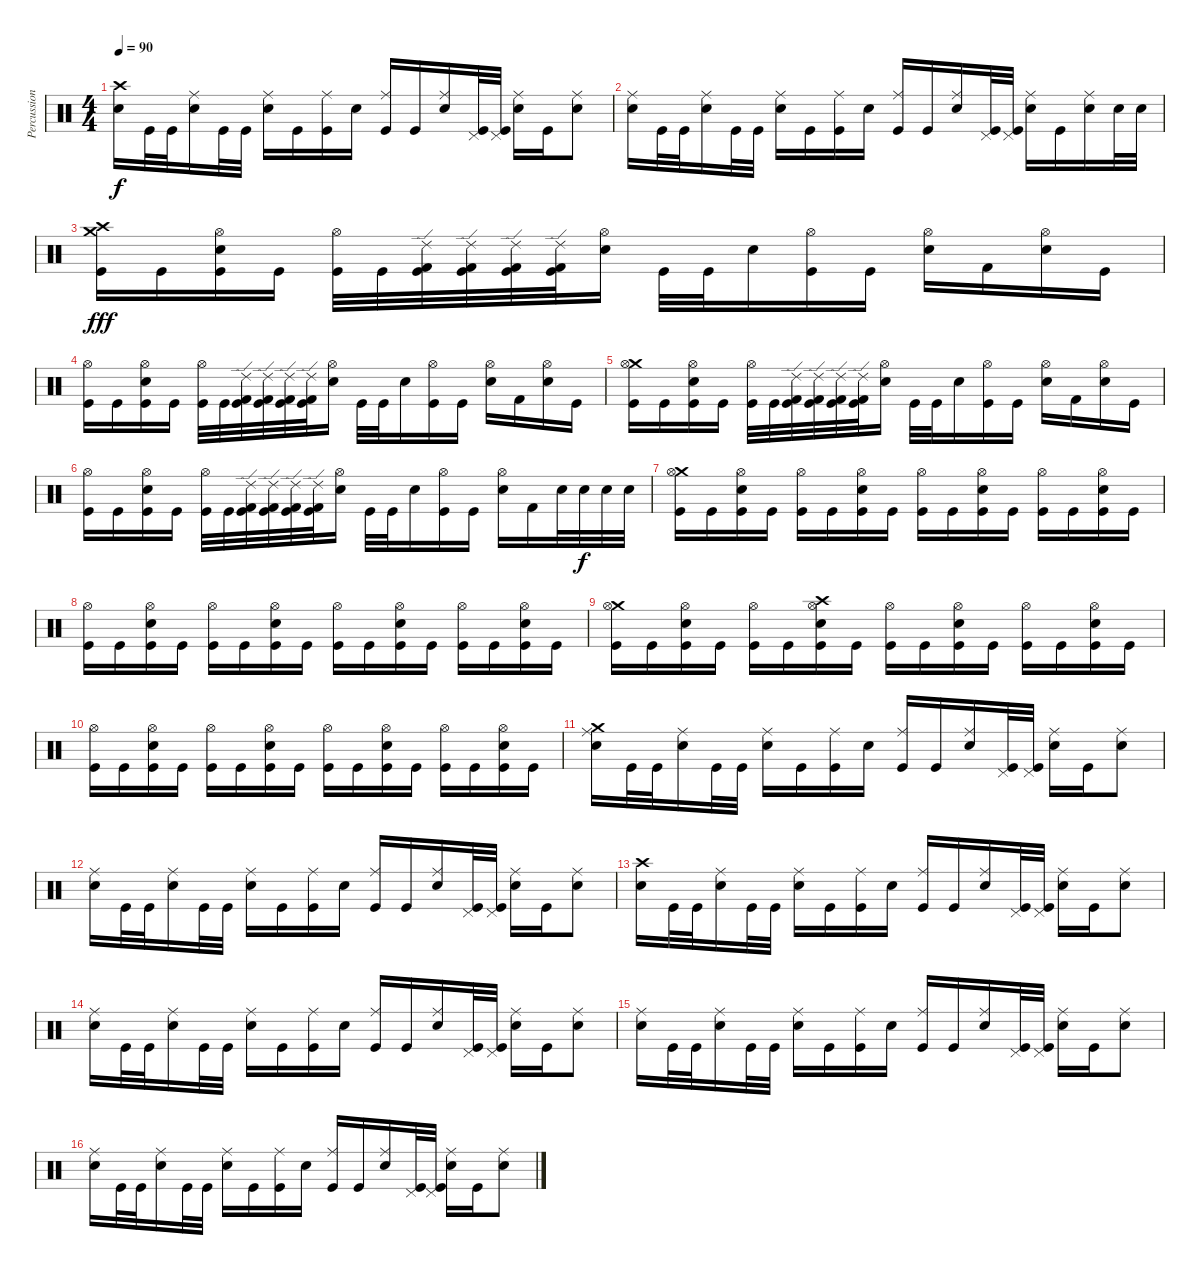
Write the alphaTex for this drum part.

\track ("Percussion" "Percussion") {instrument percussion}
\staff {score}
\articulation defaults
\ts (4 4)
\tempo 90
\clef neutral
\ks c
("Crash high (hit)" "Electric Snare (hit)").16{dy f} "Kick (hit)".32 "Kick (hit)".32 ("Ride (middle)" "Electric Snare (hit)").16 "Kick (hit)".32 "Kick (hit)".32 ("Ride (middle)" "Electric Snare (hit)").16 "Kick (hit)".16 ("Ride (middle)" "Kick (hit)").16 "Electric Snare (hit)".16 ("Ride (middle)" "Kick (hit)").16 "Kick (hit)".16 ("Ride (middle)" "Electric Snare (hit)").16 ("Pedal Hi-Hat (hit)" "Kick (hit)").32 ("Pedal Hi-Hat (hit)" "Kick (hit)").32 ("Ride (middle)" "Electric Snare (hit)").16 "Kick (hit)".16 ("Ride (middle)" "Electric Snare (hit)").8 |
("Ride (middle)" "Electric Snare (hit)").16 "Kick (hit)".32 "Kick (hit)".32 ("Ride (middle)" "Electric Snare (hit)").16 "Kick (hit)".32 "Kick (hit)".32 ("Ride (middle)" "Electric Snare (hit)").16 "Kick (hit)".16 ("Ride (middle)" "Kick (hit)").16 "Electric Snare (hit)".16 ("Ride (middle)" "Kick (hit)").16 "Kick (hit)".16 ("Ride (middle)" "Electric Snare (hit)").16 ("Pedal Hi-Hat (hit)" "Kick (hit)").32 ("Pedal Hi-Hat (hit)" "Kick (hit)").32 ("Ride (middle)" "Electric Snare (hit)").16 "Kick (hit)".16 ("Ride (middle)" "Electric Snare (hit)").16 "Electric Snare (hit)".32 "Electric Snare (hit)".32 |
("Crash medium (hit)" "Crash high (hit)" "Kick (hit)").16{dy fff} "Kick (hit)".16 ("Hi-Hat (open)" "Electric Snare (hit)" "Kick (hit)").16 "Kick (hit)".16 ("Hi-Hat (open)" "Kick (hit)").32 "Kick (hit)".32 ("Ride (edge) 2" "Kick (hit) 2" "Kick (hit)").32 ("Ride (edge) 2" "Kick (hit) 2" "Kick (hit)").32 ("Ride (edge) 2" "Kick (hit) 2" "Kick (hit)").32 ("Ride (edge) 2" "Kick (hit) 2" "Kick (hit)").32 ("Hi-Hat (open)" "Electric Snare (hit)").16 "Kick (hit)".32 "Kick (hit)".32 "Electric Snare (hit)".16 ("Hi-Hat (open)" "Kick (hit)").16 "Kick (hit)".16 ("Hi-Hat (open)" "Electric Snare (hit)").16 "Kick (hit) 2".16 ("Hi-Hat (open)" "Electric Snare (hit)").16 "Kick (hit)".16 |
("Hi-Hat (open)" "Kick (hit)").16 "Kick (hit)".16 ("Hi-Hat (open)" "Electric Snare (hit)" "Kick (hit)").16 "Kick (hit)".16 ("Hi-Hat (open)" "Kick (hit)").32 "Kick (hit)".32 ("Ride (edge) 2" "Kick (hit) 2" "Kick (hit)").32 ("Ride (edge) 2" "Kick (hit) 2" "Kick (hit)").32 ("Ride (edge) 2" "Kick (hit) 2" "Kick (hit)").32 ("Ride (edge) 2" "Kick (hit) 2" "Kick (hit)").32 ("Hi-Hat (open)" "Electric Snare (hit)").16 "Kick (hit)".32 "Kick (hit)".32 "Electric Snare (hit)".16 ("Hi-Hat (open)" "Kick (hit)").16 "Kick (hit)".16 ("Hi-Hat (open)" "Electric Snare (hit)").16 "Kick (hit) 2".16 ("Hi-Hat (open)" "Electric Snare (hit)").16 "Kick (hit)".16 |
("Crash medium (hit)" "Hi-Hat (open)" "Kick (hit)").16 "Kick (hit)".16 ("Hi-Hat (open)" "Electric Snare (hit)" "Kick (hit)").16 "Kick (hit)".16 ("Hi-Hat (open)" "Kick (hit)").32 "Kick (hit)".32 ("Ride (edge) 2" "Kick (hit) 2" "Kick (hit)").32 ("Ride (edge) 2" "Kick (hit) 2" "Kick (hit)").32 ("Ride (edge) 2" "Kick (hit) 2" "Kick (hit)").32 ("Ride (edge) 2" "Kick (hit) 2" "Kick (hit)").32 ("Hi-Hat (open)" "Electric Snare (hit)").16 "Kick (hit)".32 "Kick (hit)".32 "Electric Snare (hit)".16 ("Hi-Hat (open)" "Kick (hit)").16 "Kick (hit)".16 ("Hi-Hat (open)" "Electric Snare (hit)").16 "Kick (hit) 2".16 ("Hi-Hat (open)" "Electric Snare (hit)").16 "Kick (hit)".16 |
("Hi-Hat (open)" "Kick (hit)").16 "Kick (hit)".16 ("Hi-Hat (open)" "Electric Snare (hit)" "Kick (hit)").16 "Kick (hit)".16 ("Hi-Hat (open)" "Kick (hit)").32 "Kick (hit)".32 ("Ride (edge) 2" "Kick (hit) 2" "Kick (hit)").32 ("Ride (edge) 2" "Kick (hit) 2" "Kick (hit)").32 ("Ride (edge) 2" "Kick (hit) 2" "Kick (hit)").32 ("Ride (edge) 2" "Kick (hit) 2" "Kick (hit)").32 ("Hi-Hat (open)" "Electric Snare (hit)").16 "Kick (hit)".32 "Kick (hit)".32 "Electric Snare (hit)".16 ("Hi-Hat (open)" "Kick (hit)").16 "Kick (hit)".16 ("Hi-Hat (open)" "Electric Snare (hit)").16 "Kick (hit) 2".16 "Electric Snare (hit)".32 "Electric Snare (hit)".32{dy f} "Electric Snare (hit)".32 "Electric Snare (hit)".32 |
("Crash medium (hit)" "Hi-Hat (open)" "Kick (hit)").16 "Kick (hit)".16 ("Hi-Hat (open)" "Electric Snare (hit)" "Kick (hit)").16 "Kick (hit)".16 ("Hi-Hat (open)" "Kick (hit)").16 "Kick (hit)".16 ("Hi-Hat (open)" "Electric Snare (hit)" "Kick (hit)").16 "Kick (hit)".16 ("Hi-Hat (open)" "Kick (hit)").16 "Kick (hit)".16 ("Hi-Hat (open)" "Electric Snare (hit)" "Kick (hit)").16 "Kick (hit)".16 ("Hi-Hat (open)" "Kick (hit)").16 "Kick (hit)".16 ("Hi-Hat (open)" "Electric Snare (hit)" "Kick (hit)").16 "Kick (hit)".16 |
("Hi-Hat (open)" "Kick (hit)").16 "Kick (hit)".16 ("Hi-Hat (open)" "Electric Snare (hit)" "Kick (hit)").16 "Kick (hit)".16 ("Hi-Hat (open)" "Kick (hit)").16 "Kick (hit)".16 ("Hi-Hat (open)" "Electric Snare (hit)" "Kick (hit)").16 "Kick (hit)".16 ("Hi-Hat (open)" "Kick (hit)").16 "Kick (hit)".16 ("Hi-Hat (open)" "Electric Snare (hit)" "Kick (hit)").16 "Kick (hit)".16 ("Hi-Hat (open)" "Kick (hit)").16 "Kick (hit)".16 ("Hi-Hat (open)" "Electric Snare (hit)" "Kick (hit)").16 "Kick (hit)".16 |
("Crash medium (hit)" "Hi-Hat (open)" "Kick (hit)").16 "Kick (hit)".16 ("Hi-Hat (open)" "Electric Snare (hit)" "Kick (hit)").16 "Kick (hit)".16 ("Hi-Hat (open)" "Kick (hit)").16 "Kick (hit)".16 ("Crash high (hit)" "Hi-Hat (open)" "Electric Snare (hit)" "Kick (hit)").16 "Kick (hit)".16 ("Hi-Hat (open)" "Kick (hit)").16 "Kick (hit)".16 ("Hi-Hat (open)" "Electric Snare (hit)" "Kick (hit)").16 "Kick (hit)".16 ("Hi-Hat (open)" "Kick (hit)").16 "Kick (hit)".16 ("Hi-Hat (open)" "Electric Snare (hit)" "Kick (hit)").16 "Kick (hit)".16 |
("Hi-Hat (open)" "Kick (hit)").16 "Kick (hit)".16 ("Hi-Hat (open)" "Electric Snare (hit)" "Kick (hit)").16 "Kick (hit)".16 ("Hi-Hat (open)" "Kick (hit)").16 "Kick (hit)".16 ("Hi-Hat (open)" "Electric Snare (hit)" "Kick (hit)").16 "Kick (hit)".16 ("Hi-Hat (open)" "Kick (hit)").16 "Kick (hit)".16 ("Hi-Hat (open)" "Electric Snare (hit)" "Kick (hit)").16 "Kick (hit)".16 ("Hi-Hat (open)" "Kick (hit)").16 "Kick (hit)".16 ("Hi-Hat (open)" "Electric Snare (hit)" "Kick (hit)").16 "Kick (hit)".16 |
("Crash medium (hit)" "Ride (middle)" "Electric Snare (hit)").16 "Kick (hit)".32 "Kick (hit)".32 ("Ride (middle)" "Electric Snare (hit)").16 "Kick (hit)".32 "Kick (hit)".32 ("Ride (middle)" "Electric Snare (hit)").16 "Kick (hit)".16 ("Ride (middle)" "Kick (hit)").16 "Electric Snare (hit)".16 ("Ride (middle)" "Kick (hit)").16 "Kick (hit)".16 ("Ride (middle)" "Electric Snare (hit)").16 ("Pedal Hi-Hat (hit)" "Kick (hit)").32 ("Pedal Hi-Hat (hit)" "Kick (hit)").32 ("Ride (middle)" "Electric Snare (hit)").16 "Kick (hit)".16 ("Ride (middle)" "Electric Snare (hit)").8 |
("Ride (middle)" "Electric Snare (hit)").16 "Kick (hit)".32 "Kick (hit)".32 ("Ride (middle)" "Electric Snare (hit)").16 "Kick (hit)".32 "Kick (hit)".32 ("Ride (middle)" "Electric Snare (hit)").16 "Kick (hit)".16 ("Ride (middle)" "Kick (hit)").16 "Electric Snare (hit)".16 ("Ride (middle)" "Kick (hit)").16 "Kick (hit)".16 ("Ride (middle)" "Electric Snare (hit)").16 ("Pedal Hi-Hat (hit)" "Kick (hit)").32 ("Pedal Hi-Hat (hit)" "Kick (hit)").32 ("Ride (middle)" "Electric Snare (hit)").16 "Kick (hit)".16 ("Ride (middle)" "Electric Snare (hit)").8 |
("Crash high (hit)" "Electric Snare (hit)").16 "Kick (hit)".32 "Kick (hit)".32 ("Ride (middle)" "Electric Snare (hit)").16 "Kick (hit)".32 "Kick (hit)".32 ("Ride (middle)" "Electric Snare (hit)").16 "Kick (hit)".16 ("Ride (middle)" "Kick (hit)").16 "Electric Snare (hit)".16 ("Ride (middle)" "Kick (hit)").16 "Kick (hit)".16 ("Ride (middle)" "Electric Snare (hit)").16 ("Pedal Hi-Hat (hit)" "Kick (hit)").32 ("Pedal Hi-Hat (hit)" "Kick (hit)").32 ("Ride (middle)" "Electric Snare (hit)").16 "Kick (hit)".16 ("Ride (middle)" "Electric Snare (hit)").8 |
("Ride (middle)" "Electric Snare (hit)").16 "Kick (hit)".32 "Kick (hit)".32 ("Ride (middle)" "Electric Snare (hit)").16 "Kick (hit)".32 "Kick (hit)".32 ("Ride (middle)" "Electric Snare (hit)").16 "Kick (hit)".16 ("Ride (middle)" "Kick (hit)").16 "Electric Snare (hit)".16 ("Ride (middle)" "Kick (hit)").16 "Kick (hit)".16 ("Ride (middle)" "Electric Snare (hit)").16 ("Pedal Hi-Hat (hit)" "Kick (hit)").32 ("Pedal Hi-Hat (hit)" "Kick (hit)").32 ("Ride (middle)" "Electric Snare (hit)").16 "Kick (hit)".16 ("Ride (middle)" "Electric Snare (hit)").8 |
("Ride (middle)" "Electric Snare (hit)").16 "Kick (hit)".32 "Kick (hit)".32 ("Ride (middle)" "Electric Snare (hit)").16 "Kick (hit)".32 "Kick (hit)".32 ("Ride (middle)" "Electric Snare (hit)").16 "Kick (hit)".16 ("Ride (middle)" "Kick (hit)").16 "Electric Snare (hit)".16 ("Ride (middle)" "Kick (hit)").16 "Kick (hit)".16 ("Ride (middle)" "Electric Snare (hit)").16 ("Pedal Hi-Hat (hit)" "Kick (hit)").32 ("Pedal Hi-Hat (hit)" "Kick (hit)").32 ("Ride (middle)" "Electric Snare (hit)").16 "Kick (hit)".16 ("Ride (middle)" "Electric Snare (hit)").8 |
("Ride (middle)" "Electric Snare (hit)").16 "Kick (hit)".32 "Kick (hit)".32 ("Ride (middle)" "Electric Snare (hit)").16 "Kick (hit)".32 "Kick (hit)".32 ("Ride (middle)" "Electric Snare (hit)").16 "Kick (hit)".16 ("Ride (middle)" "Kick (hit)").16 "Electric Snare (hit)".16 ("Ride (middle)" "Kick (hit)").16 "Kick (hit)".16 ("Ride (middle)" "Electric Snare (hit)").16 ("Pedal Hi-Hat (hit)" "Kick (hit)").32 ("Pedal Hi-Hat (hit)" "Kick (hit)").32 ("Ride (middle)" "Electric Snare (hit)").16 "Kick (hit)".16 ("Ride (middle)" "Electric Snare (hit)").8
